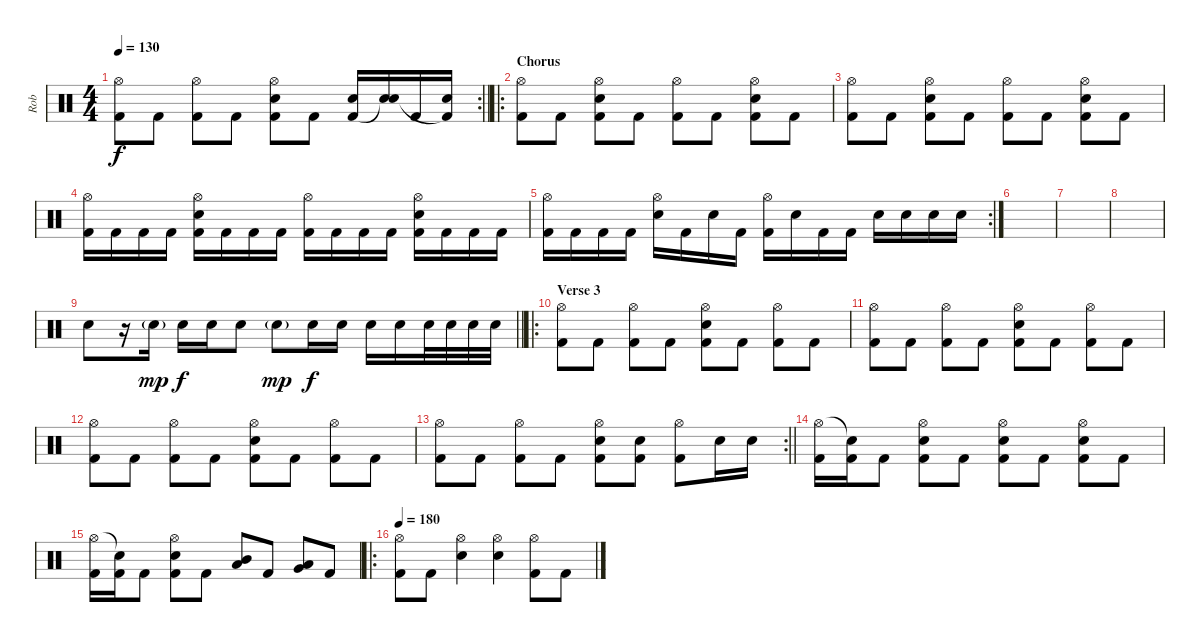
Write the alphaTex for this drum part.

\track ("Rob" "Rob") {instrument percussion}
\staff {score}
\articulation defaults
\rc 2
\ts (4 4)
\tempo 130
\clef neutral
\barLineRight lightlight
\ks c
("Hi-Hat (open)" "Kick (hit) 2").8{dy f} "Kick (hit) 2".8 ("Hi-Hat (open)" "Kick (hit) 2").8 "Kick (hit) 2".8 ("Hi-Hat (open)" "Electric Snare (hit)" "Kick (hit) 2").8 "Kick (hit) 2".8 ("Electric Snare (hit)" "Kick (hit) 2").16 ("Electric Snare (hit)" "Snare (hit)"{t}).16 "Kick (hit) 2".16 ("Electric Snare (hit)" "Kick (hit) 2"{t}).16 |
\ro
\section ("" "Chorus")
("Hi-Hat (open)" "Kick (hit) 2").8 "Kick (hit) 2".8 ("Hi-Hat (open)" "Electric Snare (hit)" "Kick (hit) 2").8 "Kick (hit) 2".8 ("Hi-Hat (open)" "Kick (hit) 2").8 "Kick (hit) 2".8 ("Hi-Hat (open)" "Electric Snare (hit)" "Kick (hit) 2").8 "Kick (hit) 2".8 |
("Hi-Hat (open)" "Kick (hit) 2").8 "Kick (hit) 2".8 ("Hi-Hat (open)" "Electric Snare (hit)" "Kick (hit) 2").8 "Kick (hit) 2".8 ("Hi-Hat (open)" "Kick (hit) 2").8 "Kick (hit) 2".8 ("Hi-Hat (open)" "Electric Snare (hit)" "Kick (hit) 2").8 "Kick (hit) 2".8 |
("Hi-Hat (open)" "Kick (hit) 2").16 "Kick (hit) 2".16 "Kick (hit) 2".16 "Kick (hit) 2".16 ("Hi-Hat (open)" "Electric Snare (hit)" "Kick (hit) 2").16 "Kick (hit) 2".16 "Kick (hit) 2".16 "Kick (hit) 2".16 ("Hi-Hat (open)" "Kick (hit) 2").16 "Kick (hit) 2".16 "Kick (hit) 2".16 "Kick (hit) 2".16 ("Hi-Hat (open)" "Electric Snare (hit)" "Kick (hit) 2").16 "Kick (hit) 2".16 "Kick (hit) 2".16 "Kick (hit) 2".16 |
\rc 2
("Hi-Hat (open)" "Kick (hit) 2").16 "Kick (hit) 2".16 "Kick (hit) 2".16 "Kick (hit) 2".16 ("Hi-Hat (open)" "Electric Snare (hit)").16 "Kick (hit) 2".16 "Electric Snare (hit)".16 "Kick (hit) 2".16 ("Hi-Hat (open)" "Kick (hit) 2").16 "Electric Snare (hit)".16 "Kick (hit) 2".16 "Kick (hit) 2".16 "Electric Snare (hit)".16 "Electric Snare (hit)".16 "Electric Snare (hit)".16 "Electric Snare (hit)".16 |
|
|
|
\barLineRight lightlight "Electric Snare (hit)".8
r.16 "Electric Snare (hit)"{g}.16{dy mp} "Electric Snare (hit)".16{dy f} "Electric Snare (hit)".16 "Electric Snare (hit)".8 "Electric Snare (hit)"{g}.8{dy mp} "Electric Snare (hit)".16{dy f} "Electric Snare (hit)".16 "Electric Snare (hit)".16 "Electric Snare (hit)".16 "Electric Snare (hit)".32 "Electric Snare (hit)".32 "Electric Snare (hit)".32 "Electric Snare (hit)".32 |
\ro
\section ("" "Verse 3")
("Hi-Hat (open)" "Kick (hit) 2").8 "Kick (hit) 2".8 ("Hi-Hat (open)" "Kick (hit) 2").8 "Kick (hit) 2".8 ("Hi-Hat (open)" "Electric Snare (hit)" "Kick (hit) 2").8 "Kick (hit) 2".8 ("Hi-Hat (open)" "Kick (hit) 2").8 "Kick (hit) 2".8 |
("Hi-Hat (open)" "Kick (hit) 2").8 "Kick (hit) 2".8 ("Hi-Hat (open)" "Kick (hit) 2").8 "Kick (hit) 2".8 ("Hi-Hat (open)" "Electric Snare (hit)" "Kick (hit) 2").8 "Kick (hit) 2".8 ("Hi-Hat (open)" "Kick (hit) 2").8 "Kick (hit) 2".8 |
("Hi-Hat (open)" "Kick (hit) 2").8 "Kick (hit) 2".8 ("Hi-Hat (open)" "Kick (hit) 2").8 "Kick (hit) 2".8 ("Hi-Hat (open)" "Electric Snare (hit)" "Kick (hit) 2").8 "Kick (hit) 2".8 ("Hi-Hat (open)" "Kick (hit) 2").8 "Kick (hit) 2".8 |
\rc 2
\barLineRight lightlight
("Hi-Hat (open)" "Kick (hit) 2").8 "Kick (hit) 2".8 ("Hi-Hat (open)" "Kick (hit) 2").8 "Kick (hit) 2".8 ("Hi-Hat (open)" "Electric Snare (hit)" "Kick (hit) 2").8 ("Electric Snare (hit)" "Kick (hit) 2").8 ("Hi-Hat (open)" "Kick (hit) 2").8 "Electric Snare (hit)".16 "Electric Snare (hit)".16 |
("Hi-Hat (open)" "Kick (hit) 2").16 ("Snare (hit)"{t} "Kick (hit) 2").16 "Kick (hit) 2".8 ("Hi-Hat (open)" "Electric Snare (hit)" "Kick (hit) 2").8 "Kick (hit) 2".8 ("Hi-Hat (open)" "Electric Snare (hit)" "Kick (hit) 2").8 "Kick (hit) 2".8 ("Hi-Hat (open)" "Electric Snare (hit)" "Kick (hit) 2").8 "Kick (hit) 2".8 |
("Hi-Hat (open)" "Kick (hit) 2").16 ("Snare (hit)"{t} "Kick (hit) 2").16 "Kick (hit) 2".8 ("Hi-Hat (open)" "Electric Snare (hit)" "Kick (hit) 2").8 "Kick (hit) 2".8 ("Mid Tom (hit)" "Low Tom (hit)").8 "Kick (hit) 2".8 ("Low Tom (hit)" "Very Low Tom (hit)").8 "Kick (hit) 2".8 |
\ro
\tempo 180
("Hi-Hat (open)" "Kick (hit) 2").8 "Kick (hit) 2".8 ("Hi-Hat (open)" "Electric Snare (hit)").4 ("Hi-Hat (open)" "Electric Snare (hit)").4 ("Hi-Hat (open)" "Kick (hit) 2").8 "Kick (hit) 2".8
